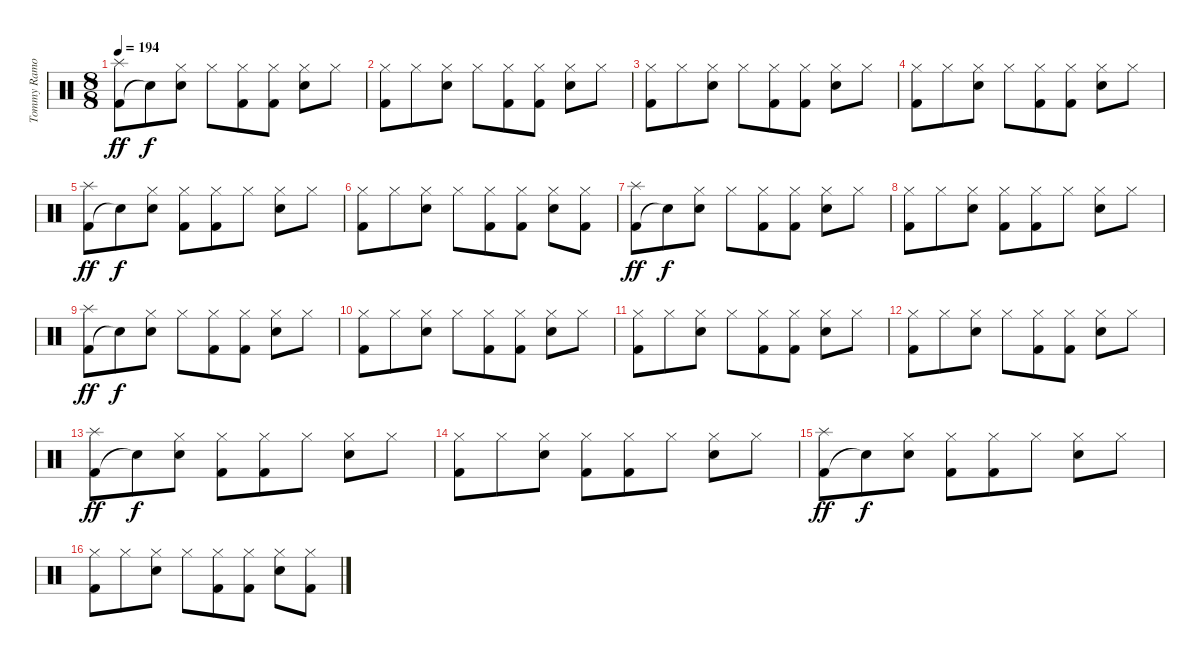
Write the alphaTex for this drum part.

\track ("Tommy Ramone - Drums" "Tommy Ramo") {instrument percussion}
\staff {score}
\articulation defaults
\ts (8 8)
\tempo 194
\clef neutral
\ks c
("Kick (hit) 2" "Splash (hit)").8{dy ff} "Snare (hit)"{t}.8{dy f} ("Electric Snare (hit)" "Hi-Hat (closed)").8 "Hi-Hat (closed)".8 ("Kick (hit) 2" "Hi-Hat (closed)").8 ("Kick (hit) 2" "Hi-Hat (closed)").8 ("Electric Snare (hit)" "Hi-Hat (closed)").8 "Hi-Hat (closed)".8 |
("Kick (hit) 2" "Hi-Hat (closed)").8 "Hi-Hat (closed)".8 ("Electric Snare (hit)" "Hi-Hat (closed)").8 "Hi-Hat (closed)".8 ("Kick (hit) 2" "Hi-Hat (closed)").8 ("Kick (hit) 2" "Hi-Hat (closed)").8 ("Electric Snare (hit)" "Hi-Hat (closed)").8 "Hi-Hat (closed)".8 |
("Kick (hit) 2" "Hi-Hat (closed)").8 "Hi-Hat (closed)".8 ("Electric Snare (hit)" "Hi-Hat (closed)").8 "Hi-Hat (closed)".8 ("Kick (hit) 2" "Hi-Hat (closed)").8 ("Kick (hit) 2" "Hi-Hat (closed)").8 ("Electric Snare (hit)" "Hi-Hat (closed)").8 "Hi-Hat (closed)".8 |
("Kick (hit) 2" "Hi-Hat (closed)").8 "Hi-Hat (closed)".8 ("Electric Snare (hit)" "Hi-Hat (closed)").8 "Hi-Hat (closed)".8 ("Kick (hit) 2" "Hi-Hat (closed)").8 ("Kick (hit) 2" "Hi-Hat (closed)").8 ("Electric Snare (hit)" "Hi-Hat (closed)").8 "Hi-Hat (closed)".8 |
("Kick (hit) 2" "Splash (hit)").8{dy ff} "Snare (hit)"{t}.8{dy f} ("Electric Snare (hit)" "Hi-Hat (closed)").8 ("Kick (hit) 2" "Hi-Hat (closed)").8 ("Kick (hit) 2" "Hi-Hat (closed)").8 "Hi-Hat (closed)".8 ("Electric Snare (hit)" "Hi-Hat (closed)").8 "Hi-Hat (closed)".8 |
("Kick (hit) 2" "Hi-Hat (closed)").8 "Hi-Hat (closed)".8 ("Electric Snare (hit)" "Hi-Hat (closed)").8 "Hi-Hat (closed)".8 ("Kick (hit) 2" "Hi-Hat (closed)").8 ("Kick (hit) 2" "Hi-Hat (closed)").8 ("Electric Snare (hit)" "Hi-Hat (closed)").8 ("Kick (hit) 2" "Hi-Hat (closed)").8 |
("Kick (hit) 2" "Splash (hit)").8{dy ff} "Snare (hit)"{t}.8{dy f} ("Electric Snare (hit)" "Hi-Hat (closed)").8 "Hi-Hat (closed)".8 ("Kick (hit) 2" "Hi-Hat (closed)").8 ("Kick (hit) 2" "Hi-Hat (closed)").8 ("Electric Snare (hit)" "Hi-Hat (closed)").8 "Hi-Hat (closed)".8 |
("Kick (hit) 2" "Hi-Hat (closed)").8 "Hi-Hat (closed)".8 ("Electric Snare (hit)" "Hi-Hat (closed)").8 ("Kick (hit) 2" "Hi-Hat (closed)").8 ("Kick (hit) 2" "Hi-Hat (closed)").8 "Hi-Hat (closed)".8 ("Electric Snare (hit)" "Hi-Hat (closed)").8 "Hi-Hat (closed)".8 |
("Kick (hit) 2" "Splash (hit)").8{dy ff} "Snare (hit)"{t}.8{dy f} ("Electric Snare (hit)" "Hi-Hat (closed)").8 "Hi-Hat (closed)".8 ("Kick (hit) 2" "Hi-Hat (closed)").8 ("Kick (hit) 2" "Hi-Hat (closed)").8 ("Electric Snare (hit)" "Hi-Hat (closed)").8 "Hi-Hat (closed)".8 |
("Kick (hit) 2" "Hi-Hat (closed)").8 "Hi-Hat (closed)".8 ("Electric Snare (hit)" "Hi-Hat (closed)").8 "Hi-Hat (closed)".8 ("Kick (hit) 2" "Hi-Hat (closed)").8 ("Kick (hit) 2" "Hi-Hat (closed)").8 ("Electric Snare (hit)" "Hi-Hat (closed)").8 "Hi-Hat (closed)".8 |
("Kick (hit) 2" "Hi-Hat (closed)").8 "Hi-Hat (closed)".8 ("Electric Snare (hit)" "Hi-Hat (closed)").8 "Hi-Hat (closed)".8 ("Kick (hit) 2" "Hi-Hat (closed)").8 ("Kick (hit) 2" "Hi-Hat (closed)").8 ("Electric Snare (hit)" "Hi-Hat (closed)").8 "Hi-Hat (closed)".8 |
("Kick (hit) 2" "Hi-Hat (closed)").8 "Hi-Hat (closed)".8 ("Electric Snare (hit)" "Hi-Hat (closed)").8 "Hi-Hat (closed)".8 ("Kick (hit) 2" "Hi-Hat (closed)").8 ("Kick (hit) 2" "Hi-Hat (closed)").8 ("Electric Snare (hit)" "Hi-Hat (closed)").8 "Hi-Hat (closed)".8 |
("Kick (hit) 2" "Splash (hit)").8{dy ff} "Snare (hit)"{t}.8{dy f} ("Electric Snare (hit)" "Hi-Hat (closed)").8 ("Kick (hit) 2" "Hi-Hat (closed)").8 ("Kick (hit) 2" "Hi-Hat (closed)").8 "Hi-Hat (closed)".8 ("Electric Snare (hit)" "Hi-Hat (closed)").8 "Hi-Hat (closed)".8 |
("Kick (hit) 2" "Hi-Hat (closed)").8 "Hi-Hat (closed)".8 ("Electric Snare (hit)" "Hi-Hat (closed)").8 ("Kick (hit) 2" "Hi-Hat (closed)").8 ("Kick (hit) 2" "Hi-Hat (closed)").8 "Hi-Hat (closed)".8 ("Electric Snare (hit)" "Hi-Hat (closed)").8 "Hi-Hat (closed)".8 |
("Kick (hit) 2" "Splash (hit)").8{dy ff} "Snare (hit)"{t}.8{dy f} ("Electric Snare (hit)" "Hi-Hat (closed)").8 ("Kick (hit) 2" "Hi-Hat (closed)").8 ("Kick (hit) 2" "Hi-Hat (closed)").8 "Hi-Hat (closed)".8 ("Electric Snare (hit)" "Hi-Hat (closed)").8 "Hi-Hat (closed)".8 |
("Kick (hit) 2" "Hi-Hat (closed)").8 "Hi-Hat (closed)".8 ("Electric Snare (hit)" "Hi-Hat (closed)").8 "Hi-Hat (closed)".8 ("Kick (hit) 2" "Hi-Hat (closed)").8 ("Kick (hit) 2" "Hi-Hat (closed)").8 ("Electric Snare (hit)" "Hi-Hat (closed)").8 ("Kick (hit) 2" "Hi-Hat (closed)").8
